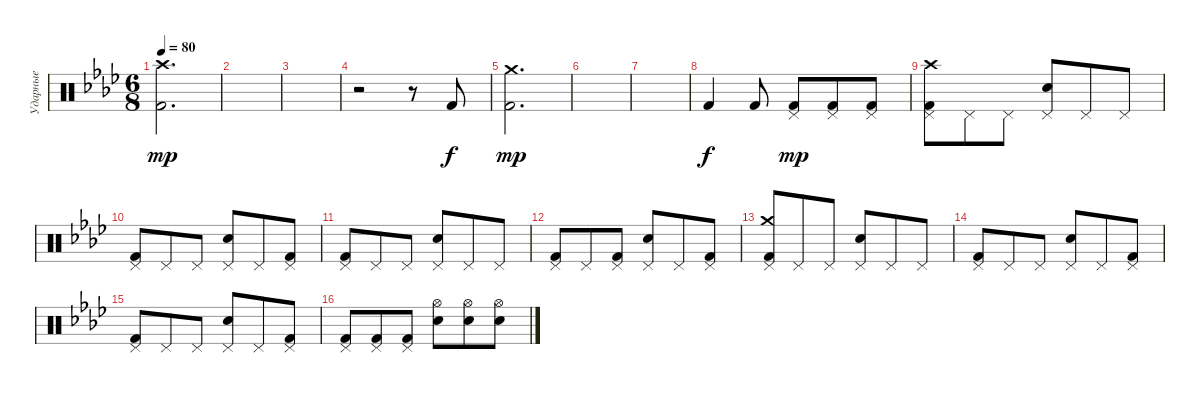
\track ("Ударные" "Ударные") {instrument percussion}
\staff {score}
\articulation defaults
\ts (6 8)
\tempo 80
\clef neutral
\ks fminor
("Crash high (hit)" "Kick (hit) 2").2{d dy mp} |
|
|
r.2 r.8 "Kick (hit) 2".8{dy f} |
("Crash medium (hit)" "Kick (hit) 2").2{d dy mp} |
|
|
"Kick (hit) 2".4{dy f} "Kick (hit) 2".8 ("Pedal Hi-Hat (hit)" "Kick (hit) 2").8{dy mp} ("Pedal Hi-Hat (hit)" "Kick (hit) 2").8 ("Pedal Hi-Hat (hit)" "Kick (hit) 2").8 |
("Pedal Hi-Hat (hit)" "Crash high (hit)" "Kick (hit) 2").8 "Pedal Hi-Hat (hit)".8 "Pedal Hi-Hat (hit)".8 ("Pedal Hi-Hat (hit)" "Electric Snare (hit)").8 "Pedal Hi-Hat (hit)".8 "Pedal Hi-Hat (hit)".8 |
("Pedal Hi-Hat (hit)" "Kick (hit) 2").8 "Pedal Hi-Hat (hit)".8 "Pedal Hi-Hat (hit)".8 ("Pedal Hi-Hat (hit)" "Electric Snare (hit)").8 "Pedal Hi-Hat (hit)".8 ("Pedal Hi-Hat (hit)" "Kick (hit) 2").8 |
("Pedal Hi-Hat (hit)" "Kick (hit) 2").8 "Pedal Hi-Hat (hit)".8 "Pedal Hi-Hat (hit)".8 ("Pedal Hi-Hat (hit)" "Electric Snare (hit)").8 "Pedal Hi-Hat (hit)".8 "Pedal Hi-Hat (hit)".8 |
("Pedal Hi-Hat (hit)" "Kick (hit) 2").8 "Pedal Hi-Hat (hit)".8 ("Pedal Hi-Hat (hit)" "Kick (hit) 2").8 ("Pedal Hi-Hat (hit)" "Electric Snare (hit)").8 "Pedal Hi-Hat (hit)".8 ("Pedal Hi-Hat (hit)" "Kick (hit) 2").8 |
("Pedal Hi-Hat (hit)" "Crash medium (hit)" "Kick (hit) 2").8 "Pedal Hi-Hat (hit)".8 "Pedal Hi-Hat (hit)".8 ("Pedal Hi-Hat (hit)" "Electric Snare (hit)").8 "Pedal Hi-Hat (hit)".8 "Pedal Hi-Hat (hit)".8 |
("Pedal Hi-Hat (hit)" "Kick (hit) 2").8 "Pedal Hi-Hat (hit)".8 "Pedal Hi-Hat (hit)".8 ("Pedal Hi-Hat (hit)" "Electric Snare (hit)").8 "Pedal Hi-Hat (hit)".8 ("Pedal Hi-Hat (hit)" "Kick (hit) 2").8 |
("Pedal Hi-Hat (hit)" "Kick (hit) 2").8 "Pedal Hi-Hat (hit)".8 "Pedal Hi-Hat (hit)".8 ("Pedal Hi-Hat (hit)" "Electric Snare (hit)").8 "Pedal Hi-Hat (hit)".8 ("Pedal Hi-Hat (hit)" "Kick (hit) 2").8 |
("Pedal Hi-Hat (hit)" "Kick (hit) 2").8 ("Pedal Hi-Hat (hit)" "Kick (hit) 2").8 ("Pedal Hi-Hat (hit)" "Kick (hit) 2").8 ("Hi-Hat (open)" "Electric Snare (hit)").8 ("Hi-Hat (open)" "Electric Snare (hit)").8 ("Hi-Hat (open)" "Electric Snare (hit)").8
